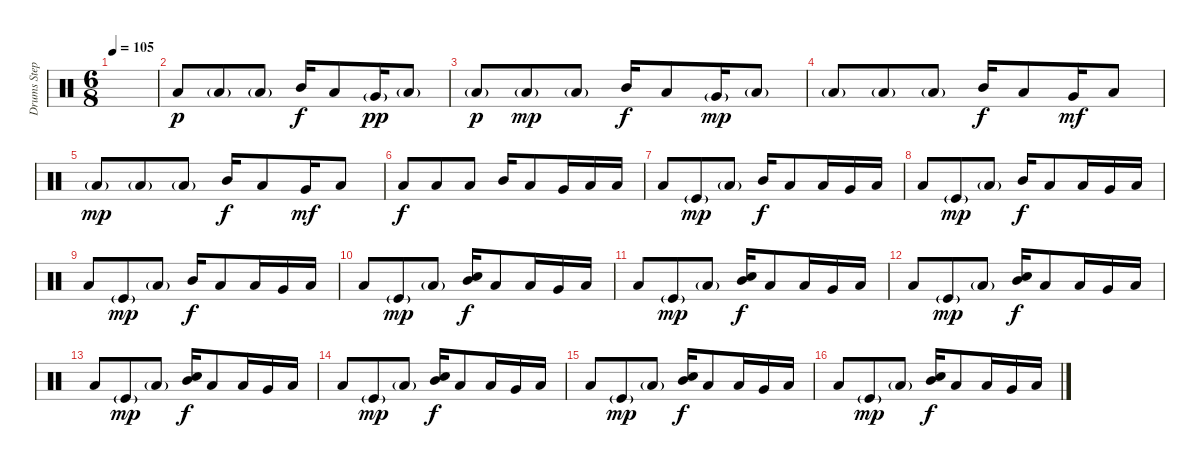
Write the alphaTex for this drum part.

\track ("Drums Stephen van Haestregt" "Drums Step") {instrument percussion}
\staff {score}
\articulation defaults
\ts (6 8)
\tempo 105
\clef neutral
\ks c
|
"Low Floor Tom (hit)".8{dy p} "Low Floor Tom (hit)"{g}.8 "Low Floor Tom (hit)"{g}.8 "Mid Tom (hit)".16{dy f} "Low Tom (hit)".8 "Very Low Tom (hit)"{g}.16{dy pp} "Low Floor Tom (hit)"{g}.8 |
"Low Floor Tom (hit)"{g}.8{dy p} "Low Floor Tom (hit)"{g}.8{dy mp} "Low Floor Tom (hit)"{g}.8 "Mid Tom (hit)".16{dy f} "Low Tom (hit)".8 "Very Low Tom (hit)"{g}.16{dy mp} "Low Floor Tom (hit)"{g}.8 |
"Low Floor Tom (hit)"{g}.8 "Low Floor Tom (hit)"{g}.8 "Low Floor Tom (hit)"{g}.8 "Mid Tom (hit)".16{dy f} "Low Tom (hit)".8 "Very Low Tom (hit)".16{dy mf} "Low Floor Tom (hit)".8 |
"Low Floor Tom (hit)"{g}.8{dy mp} "Low Floor Tom (hit)"{g}.8 "Low Floor Tom (hit)"{g}.8 "Mid Tom (hit)".16{dy f} "Low Tom (hit)".8 "Very Low Tom (hit)".16{dy mf} "Low Floor Tom (hit)".8 |
"Low Floor Tom (hit)".8{dy f} "Low Floor Tom (hit)".8 "Low Floor Tom (hit)".8 "Mid Tom (hit)".16 "Low Tom (hit)".8 "Very Low Tom (hit)".16 "Low Floor Tom (hit)".16 "Low Floor Tom (hit)".16 |
"Low Floor Tom (hit)".8 "Kick (hit)"{g}.8{dy mp} "Low Floor Tom (hit)"{g}.8 "Mid Tom (hit)".16{dy f} "Low Tom (hit)".8 "Low Tom (hit)".16 "Very Low Tom (hit)".16 "Low Tom (hit)".16 |
"Low Floor Tom (hit)".8 "Kick (hit)"{g}.8{dy mp} "Low Floor Tom (hit)"{g}.8 "Mid Tom (hit)".16{dy f} "Low Tom (hit)".8 "Low Tom (hit)".16 "Very Low Tom (hit)".16 "Low Tom (hit)".16 |
"Low Floor Tom (hit)".8 "Kick (hit)"{g}.8{dy mp} "Low Floor Tom (hit)"{g}.8 "Mid Tom (hit)".16{dy f} "Low Tom (hit)".8 "Low Tom (hit)".16 "Very Low Tom (hit)".16 "Low Tom (hit)".16 |
"Low Floor Tom (hit)".8 "Kick (hit)"{g}.8{dy mp} "Low Floor Tom (hit)"{g}.8 ("Mid Tom (hit)" "Snare (hit) 2").16{dy f} "Low Tom (hit)".8 "Low Tom (hit)".16 "Very Low Tom (hit)".16 "Low Tom (hit)".16 |
"Low Floor Tom (hit)".8 "Kick (hit)"{g}.8{dy mp} "Low Floor Tom (hit)"{g}.8 ("Mid Tom (hit)" "Snare (hit) 2").16{dy f} "Low Tom (hit)".8 "Low Tom (hit)".16 "Very Low Tom (hit)".16 "Low Tom (hit)".16 |
"Low Floor Tom (hit)".8 "Kick (hit)"{g}.8{dy mp} "Low Floor Tom (hit)"{g}.8 ("Mid Tom (hit)" "Snare (hit) 2").16{dy f} "Low Tom (hit)".8 "Low Tom (hit)".16 "Very Low Tom (hit)".16 "Low Tom (hit)".16 |
"Low Floor Tom (hit)".8 "Kick (hit)"{g}.8{dy mp} "Low Floor Tom (hit)"{g}.8 ("Mid Tom (hit)" "Snare (hit) 2").16{dy f} "Low Tom (hit)".8 "Low Tom (hit)".16 "Very Low Tom (hit)".16 "Low Tom (hit)".16 |
"Low Floor Tom (hit)".8 "Kick (hit)"{g}.8{dy mp} "Low Floor Tom (hit)"{g}.8 ("Mid Tom (hit)" "Snare (hit) 2").16{dy f} "Low Tom (hit)".8 "Low Tom (hit)".16 "Very Low Tom (hit)".16 "Low Tom (hit)".16 |
"Low Floor Tom (hit)".8 "Kick (hit)"{g}.8{dy mp} "Low Floor Tom (hit)"{g}.8 ("Mid Tom (hit)" "Snare (hit) 2").16{dy f} "Low Tom (hit)".8 "Low Tom (hit)".16 "Very Low Tom (hit)".16 "Low Tom (hit)".16 |
"Low Floor Tom (hit)".8 "Kick (hit)"{g}.8{dy mp} "Low Floor Tom (hit)"{g}.8 ("Mid Tom (hit)" "Snare (hit) 2").16{dy f} "Low Tom (hit)".8 "Low Tom (hit)".16 "Very Low Tom (hit)".16 "Low Tom (hit)".16
